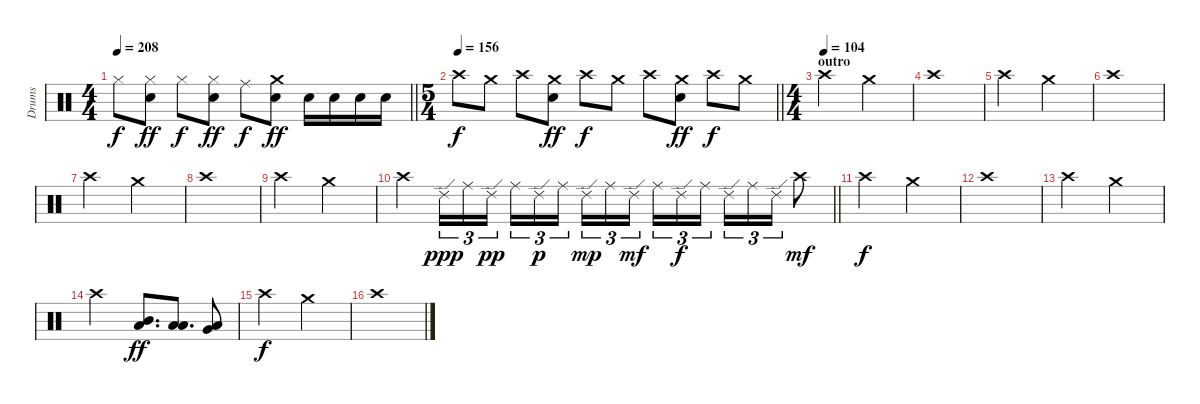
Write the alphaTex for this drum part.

\track ("Drums" "Drums") {instrument percussion}
\staff {score}
\articulation defaults
\ts (4 4)
\tempo 208
\clef neutral
\barLineRight lightlight
\ks c "Hi-Hat (closed)".8{dy f}
("Hi-Hat (closed)" "Snare (hit) 2").8{dy ff} "Hi-Hat (closed)".8{dy f} ("Hi-Hat (closed)" "Snare (hit) 2").8{dy ff} "Ride (middle)".8{dy f} ("Crash medium (hit)" "Snare (hit) 2").8{dy ff} "Snare (hit) 2".16 "Snare (hit) 2".16 "Snare (hit) 2".16 "Snare (hit) 2".16 |
\ts (5 4)
\section ("" "")
\tempo 156
\barLineRight lightlight "Crash high (hit)".8{dy f} "Crash medium (hit)".8 "Crash high (hit)".8
("Crash medium (hit)" "Snare (hit) 2").8{dy ff} "Crash high (hit)".8{dy f} "Crash medium (hit)".8 "Crash high (hit)".8 ("Crash medium (hit)" "Snare (hit) 2").8{dy ff} "Crash high (hit)".8{dy f} "Crash medium (hit)".8 |
\ts (4 4)
\section ("" "outro")
\tempo (104)
"Crash high (hit)".2 "Crash medium (hit)".2 |
"Crash high (hit)".1 |
"Crash high (hit)".2 "Crash medium (hit)".2 |
"Crash high (hit)".1 |
"Crash high (hit)".2 "Crash medium (hit)".2 |
"Crash high (hit)".1 |
"Crash high (hit)".2 "Crash medium (hit)".2 |
\barLineRight lightlight "Crash high (hit)".4 "Ride (edge) 2".16{tu (3 2) dy ppp} "Ride (middle)".16{tu (3 2)} "Ride (edge) 2".16{tu (3 2) dy pp beam splitsecondary} "Ride (middle)".16{tu (3 2)} "Ride (edge) 2".16{tu (3 2) dy p} "Ride (middle)".16{tu (3 2)} "Ride (edge) 2".16{tu (3 2) dy mp} "Ride (middle)".16{tu (3 2)} "Ride (edge) 2".16{tu (3 2) dy mf beam splitsecondary} "Ride (middle)".16{tu (3 2)} "Ride (edge) 2".16{tu (3 2) dy f} "Ride (middle)".16{tu (3 2)} "Ride (edge) 2".16{tu (3 2)} "Ride (middle)".16{tu (3 2)} "Ride (edge) 2".16{tu (3 2)} "Crash high (hit)".8{dy mf}
|
\section ("" "")
"Crash high (hit)".2{dy f} "Crash medium (hit)".2 |
"Crash high (hit)".1 |
"Crash high (hit)".2 "Crash medium (hit)".2 |
"Crash high (hit)".2 ("Mid Tom (hit)" "Low Floor Tom (hit)").8{d dy ff} ("Low Tom (hit)" "Low Floor Tom (hit)").8{d} ("Very Low Tom (hit)" "Low Floor Tom (hit)").8 |
"Crash high (hit)".2{dy f} "Crash medium (hit)".2 |
"Crash high (hit)".1
